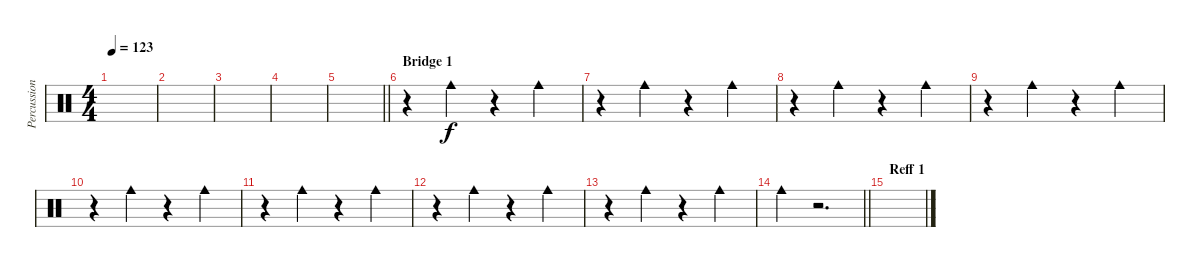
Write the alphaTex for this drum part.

\track ("Percussion 2" "Percussion") {instrument percussion}
\staff {score}
\articulation defaults
\ts (4 4)
\tempo 123
\clef neutral
\ks c
|
|
|
|
\barLineRight lightlight
|
\section ("" "Bridge 1")
r.4 "Cowbell medium (hit)".4 r.4 "Cowbell medium (hit)".4 |
r.4 "Cowbell medium (hit)".4 r.4 "Cowbell medium (hit)".4 |
r.4 "Cowbell medium (hit)".4 r.4 "Cowbell medium (hit)".4 |
r.4 "Cowbell medium (hit)".4 r.4 "Cowbell medium (hit)".4 |
r.4 "Cowbell medium (hit)".4 r.4 "Cowbell medium (hit)".4 |
r.4 "Cowbell medium (hit)".4 r.4 "Cowbell medium (hit)".4 |
r.4 "Cowbell medium (hit)".4 r.4 "Cowbell medium (hit)".4 |
r.4 "Cowbell medium (hit)".4 r.4 "Cowbell medium (hit)".4 |
\barLineRight lightlight "Cowbell medium (hit)".4
r.2{d} |
\section ("" "Reff 1")
